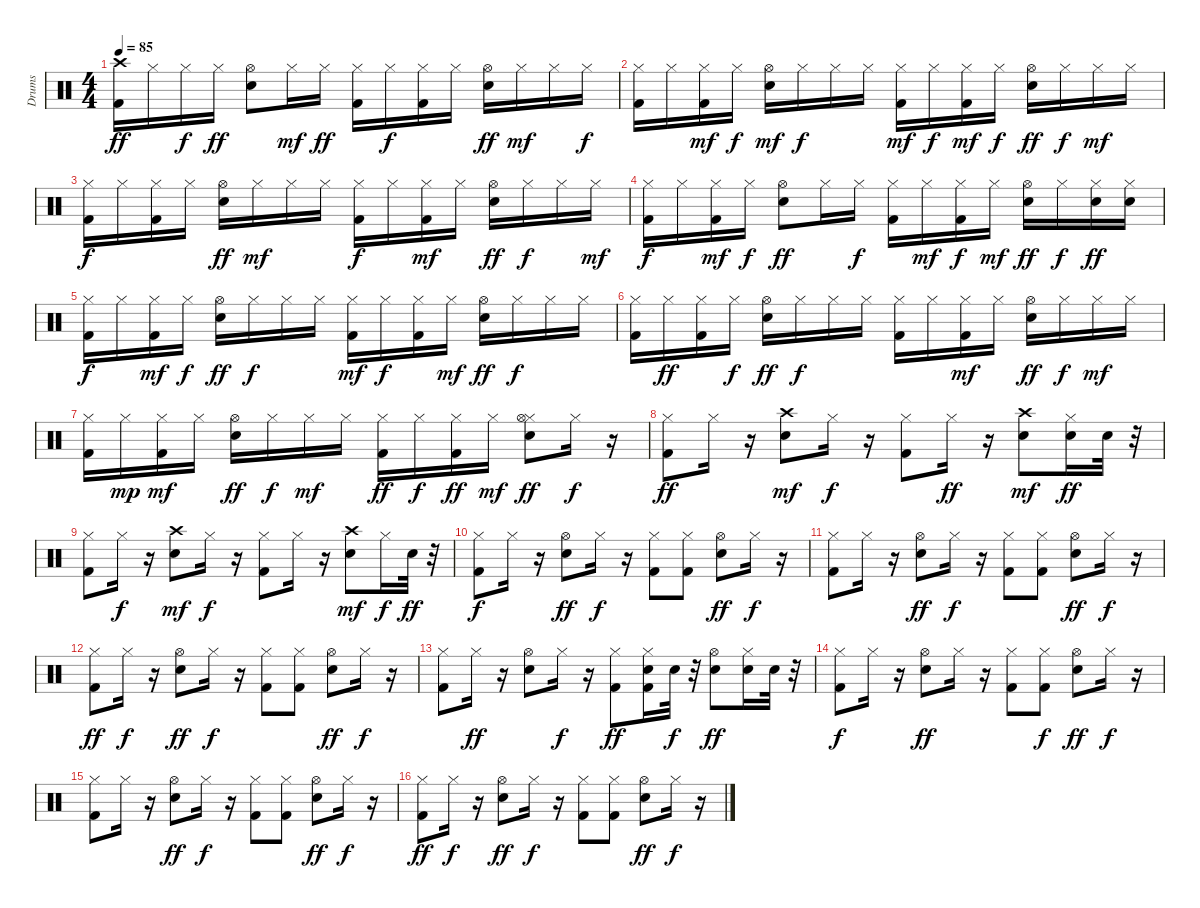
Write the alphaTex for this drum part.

\track ("Drums" "Drums") {instrument percussion}
\staff {score}
\articulation defaults
\ts (4 4)
\tempo 85
\clef neutral
\ks c
("Kick (hit) 2" "Crash high (hit)").16{dy ff} "Hi-Hat (closed)".16 "Hi-Hat (closed)".16{dy f} "Hi-Hat (closed)".16{dy ff} ("Electric Snare (hit)" "Hi-Hat (open)").8 "Hi-Hat (closed)".16{dy mf} "Hi-Hat (closed)".16{dy ff} ("Kick (hit) 2" "Hi-Hat (closed)").16 "Hi-Hat (closed)".16{dy f} ("Kick (hit) 2" "Hi-Hat (closed)").16 "Hi-Hat (closed)".16 ("Electric Snare (hit)" "Hi-Hat (open)").16{dy ff} "Hi-Hat (closed)".16{dy mf} "Hi-Hat (closed)".16 "Hi-Hat (closed)".16{dy f} |
("Kick (hit) 2" "Hi-Hat (closed)").16 "Hi-Hat (closed)".16 ("Kick (hit) 2" "Hi-Hat (closed)").16{dy mf} "Hi-Hat (closed)".16{dy f} ("Electric Snare (hit)" "Hi-Hat (open)").16{dy mf} "Hi-Hat (closed)".16{dy f} "Hi-Hat (closed)".16 "Hi-Hat (closed)".16 ("Kick (hit) 2" "Hi-Hat (closed)").16{dy mf} "Hi-Hat (closed)".16{dy f} ("Kick (hit) 2" "Hi-Hat (closed)").16{dy mf} "Hi-Hat (closed)".16{dy f} ("Electric Snare (hit)" "Hi-Hat (open)").16{dy ff} "Hi-Hat (closed)".16{dy f} "Hi-Hat (closed)".16{dy mf} "Hi-Hat (closed)".16 |
("Kick (hit) 2" "Hi-Hat (closed)").16{dy f} "Hi-Hat (closed)".16 ("Kick (hit) 2" "Hi-Hat (closed)").16 "Hi-Hat (closed)".16 ("Electric Snare (hit)" "Hi-Hat (open)").16{dy ff} "Hi-Hat (closed)".16{dy mf} "Hi-Hat (closed)".16 "Hi-Hat (closed)".16 ("Kick (hit) 2" "Hi-Hat (closed)").16{dy f} "Hi-Hat (closed)".16 ("Kick (hit) 2" "Hi-Hat (closed)").16{dy mf} "Hi-Hat (closed)".16 ("Electric Snare (hit)" "Hi-Hat (open)").16{dy ff} "Hi-Hat (closed)".16{dy f} "Hi-Hat (closed)".16 "Hi-Hat (closed)".16{dy mf} |
("Kick (hit) 2" "Hi-Hat (closed)").16{dy f} "Hi-Hat (closed)".16 ("Kick (hit) 2" "Hi-Hat (closed)").16{dy mf} "Hi-Hat (closed)".16{dy f} ("Electric Snare (hit)" "Hi-Hat (open)").8{dy ff} "Hi-Hat (closed)".16 "Hi-Hat (closed)".16{dy f} ("Kick (hit) 2" "Hi-Hat (closed)").16 "Hi-Hat (closed)".16{dy mf} ("Kick (hit) 2" "Hi-Hat (closed)").16{dy f} "Hi-Hat (closed)".16{dy mf} ("Electric Snare (hit)" "Hi-Hat (open)").16{dy ff} "Hi-Hat (closed)".16{dy f} ("Hi-Hat (closed)" "Electric Snare (hit)").16{dy ff} ("Hi-Hat (closed)" "Electric Snare (hit)").16 |
("Kick (hit) 2" "Hi-Hat (closed)").16{dy f} "Hi-Hat (closed)".16 ("Kick (hit) 2" "Hi-Hat (closed)").16{dy mf} "Hi-Hat (closed)".16{dy f} ("Electric Snare (hit)" "Hi-Hat (open)").16{dy ff} "Hi-Hat (closed)".16{dy f} "Hi-Hat (closed)".16 "Hi-Hat (closed)".16 ("Kick (hit) 2" "Hi-Hat (closed)").16{dy mf} "Hi-Hat (closed)".16{dy f} ("Kick (hit) 2" "Hi-Hat (closed)").16 "Hi-Hat (closed)".16{dy mf} ("Electric Snare (hit)" "Hi-Hat (open)").16{dy ff} "Hi-Hat (closed)".16{dy f} "Hi-Hat (closed)".16 "Hi-Hat (closed)".16 |
("Kick (hit) 2" "Hi-Hat (closed)").16 "Hi-Hat (closed)".16{dy ff} ("Kick (hit) 2" "Hi-Hat (closed)").16 "Hi-Hat (closed)".16{dy f} ("Electric Snare (hit)" "Hi-Hat (open)").16{dy ff} "Hi-Hat (closed)".16{dy f} "Hi-Hat (closed)".16 "Hi-Hat (closed)".16 ("Kick (hit) 2" "Hi-Hat (closed)").16 "Hi-Hat (closed)".16 ("Kick (hit) 2" "Hi-Hat (closed)").16{dy mf} "Hi-Hat (closed)".16 ("Electric Snare (hit)" "Hi-Hat (open)").16{dy ff} "Hi-Hat (closed)".16{dy f} "Hi-Hat (closed)".16{dy mf} "Hi-Hat (closed)".16 |
("Kick (hit) 2" "Hi-Hat (closed)").16 "Hi-Hat (closed)".16{dy mp} ("Kick (hit) 2" "Hi-Hat (closed)").16{dy mf} "Hi-Hat (closed)".16 ("Electric Snare (hit)" "Hi-Hat (open)").16{dy ff} "Hi-Hat (closed)".16{dy f} "Hi-Hat (closed)".16{dy mf} "Hi-Hat (closed)".16 ("Kick (hit) 2" "Hi-Hat (closed)").16{dy ff} "Hi-Hat (closed)".16{dy f} ("Kick (hit) 2" "Hi-Hat (closed)").16{dy ff} "Hi-Hat (closed)".16{dy mf} ("Electric Snare (hit)" "Hi-Hat (closed)" "Hi-Hat (open)").8{dy ff} "Hi-Hat (closed)".16{dy f} r.16 |
("Kick (hit) 2" "Hi-Hat (closed)").8{dy ff} "Hi-Hat (closed)".16 r.16 ("Electric Snare (hit)" "Crash high (hit)").8{dy mf} "Hi-Hat (closed)".16{dy f} r.16 ("Kick (hit) 2" "Hi-Hat (closed)").8 "Hi-Hat (closed)".16{dy ff} r.16 ("Electric Snare (hit)" "Crash high (hit)").8{dy mf} ("Hi-Hat (closed)" "Electric Snare (hit)").16{dy ff} "Electric Snare (hit)".32 r.32 |
("Kick (hit) 2" "Hi-Hat (closed)").8 "Hi-Hat (closed)".16{dy f} r.16 ("Electric Snare (hit)" "Crash high (hit)").8{dy mf} "Hi-Hat (closed)".16{dy f} r.16 ("Kick (hit) 2" "Hi-Hat (closed)").8 "Hi-Hat (closed)".16 r.16 ("Electric Snare (hit)" "Crash high (hit)").8{dy mf} "Hi-Hat (closed)".16{dy f} "Electric Snare (hit)".32{dy ff} r.32 |
("Kick (hit) 2" "Hi-Hat (closed)").8{dy f} "Hi-Hat (closed)".16 r.16 ("Electric Snare (hit)" "Hi-Hat (open)").8{dy ff} "Hi-Hat (closed)".16{dy f} r.16 ("Kick (hit) 2" "Hi-Hat (closed)").8 ("Kick (hit) 2" "Hi-Hat (closed)").8 ("Electric Snare (hit)" "Hi-Hat (open)").8{dy ff} "Hi-Hat (closed)".16{dy f} r.16 |
("Kick (hit) 2" "Hi-Hat (closed)").8 "Hi-Hat (closed)".16 r.16 ("Electric Snare (hit)" "Hi-Hat (open)").8{dy ff} "Hi-Hat (closed)".16{dy f} r.16 ("Kick (hit) 2" "Hi-Hat (closed)").8 ("Kick (hit) 2" "Hi-Hat (closed)").8 ("Electric Snare (hit)" "Hi-Hat (open)").8{dy ff} "Hi-Hat (closed)".16{dy f} r.16 |
("Kick (hit) 2" "Hi-Hat (closed)").8{dy ff} "Hi-Hat (closed)".16{dy f} r.16 ("Electric Snare (hit)" "Hi-Hat (open)").8{dy ff} "Hi-Hat (closed)".16{dy f} r.16 ("Kick (hit) 2" "Hi-Hat (closed)").8 ("Kick (hit) 2" "Hi-Hat (closed)").8 ("Electric Snare (hit)" "Hi-Hat (open)").8{dy ff} "Hi-Hat (closed)".16{dy f} r.16 |
("Kick (hit) 2" "Hi-Hat (closed)").8 "Hi-Hat (closed)".16{dy ff} r.16 ("Electric Snare (hit)" "Hi-Hat (open)").8 "Hi-Hat (closed)".16{dy f} r.16 ("Kick (hit) 2" "Hi-Hat (closed)").8{dy ff} ("Kick (hit) 2" "Hi-Hat (closed)" "Electric Snare (hit)").16 "Electric Snare (hit)".32{dy f} r.32 ("Electric Snare (hit)" "Hi-Hat (open)").8{dy ff} ("Hi-Hat (closed)" "Electric Snare (hit)").16 "Electric Snare (hit)".32 r.32 |
("Kick (hit) 2" "Hi-Hat (closed)").8{dy f} "Hi-Hat (closed)".16 r.16 ("Electric Snare (hit)" "Hi-Hat (open)").8{dy ff} "Hi-Hat (closed)".16 r.16 ("Kick (hit) 2" "Hi-Hat (closed)").8 ("Kick (hit) 2" "Hi-Hat (closed)").8{dy f} ("Electric Snare (hit)" "Hi-Hat (open)").8{dy ff} "Hi-Hat (closed)".16{dy f} r.16 |
("Kick (hit) 2" "Hi-Hat (closed)").8 "Hi-Hat (closed)".16 r.16 ("Electric Snare (hit)" "Hi-Hat (open)").8{dy ff} "Hi-Hat (closed)".16{dy f} r.16 ("Kick (hit) 2" "Hi-Hat (closed)").8 ("Kick (hit) 2" "Hi-Hat (closed)").8 ("Electric Snare (hit)" "Hi-Hat (open)").8{dy ff} "Hi-Hat (closed)".16{dy f} r.16 |
("Kick (hit) 2" "Hi-Hat (closed)").8{dy ff} "Hi-Hat (closed)".16{dy f} r.16 ("Electric Snare (hit)" "Hi-Hat (open)").8{dy ff} "Hi-Hat (closed)".16{dy f} r.16 ("Kick (hit) 2" "Hi-Hat (closed)").8 ("Kick (hit) 2" "Hi-Hat (closed)").8 ("Electric Snare (hit)" "Hi-Hat (open)").8{dy ff} "Hi-Hat (closed)".16{dy f} r.16
